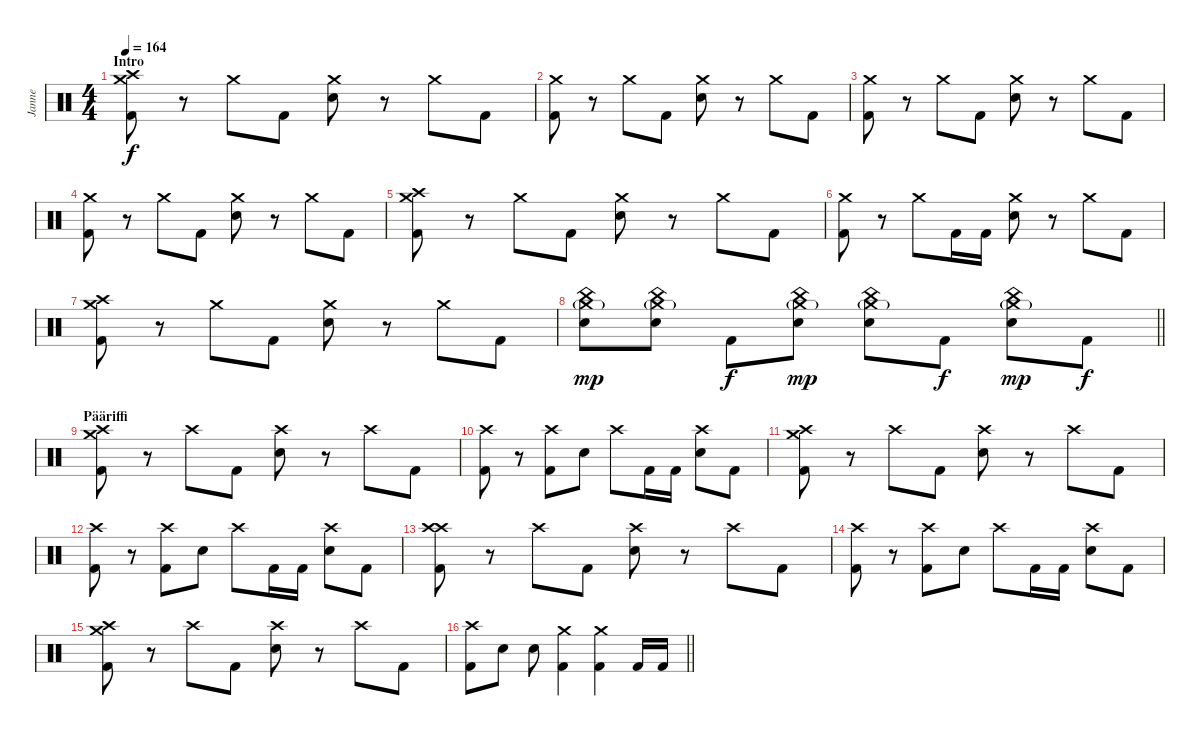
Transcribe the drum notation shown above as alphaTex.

\track ("Janne" "Janne") {instrument percussion}
\staff {score}
\articulation defaults
\ts (4 4)
\section ("" "Intro")
\tempo 164
\clef neutral
\ks c
("Crash medium (hit)" "Crash high (hit)" "Kick (hit) 2").8{dy f} r.8 "Crash medium (hit)".8 "Kick (hit) 2".8 ("Crash medium (hit)" "Electric Snare (hit)").8 r.8 "Crash medium (hit)".8 "Kick (hit) 2".8 |
("Crash medium (hit)" "Kick (hit) 2").8 r.8 "Crash medium (hit)".8 "Kick (hit) 2".8 ("Crash medium (hit)" "Electric Snare (hit)").8 r.8 "Crash medium (hit)".8 "Kick (hit) 2".8 |
("Crash medium (hit)" "Kick (hit) 2").8 r.8 "Crash medium (hit)".8 "Kick (hit) 2".8 ("Crash medium (hit)" "Electric Snare (hit)").8 r.8 "Crash medium (hit)".8 "Kick (hit) 2".8 |
("Crash medium (hit)" "Kick (hit) 2").8 r.8 "Crash medium (hit)".8 "Kick (hit) 2".8 ("Crash medium (hit)" "Electric Snare (hit)").8 r.8 "Crash medium (hit)".8 "Kick (hit) 2".8 |
("Crash medium (hit)" "Crash high (hit)" "Kick (hit) 2").8 r.8 "Crash medium (hit)".8 "Kick (hit) 2".8 ("Crash medium (hit)" "Electric Snare (hit)").8 r.8 "Crash medium (hit)".8 "Kick (hit) 2".8 |
("Crash medium (hit)" "Kick (hit) 2").8 r.8 "Crash medium (hit)".8 "Kick (hit) 2".16 "Kick (hit) 2".16 ("Crash medium (hit)" "Electric Snare (hit)").8 r.8 "Crash medium (hit)".8 "Kick (hit) 2".8 |
("Crash medium (hit)" "Crash high (hit)" "Kick (hit) 2").8 r.8 "Crash medium (hit)".8 "Kick (hit) 2".8 ("Crash medium (hit)" "Electric Snare (hit)").8 r.8 "Crash medium (hit)".8 "Kick (hit) 2".8 |
\barLineRight lightlight
("China (hit)" "Electric Snare (hit)" "Crash medium (hit)"{g}).8{dy mp} ("China (hit)" "Electric Snare (hit)" "Crash medium (hit)"{g}).8 "Kick (hit) 2".8{dy f} ("China (hit)" "Electric Snare (hit)" "Crash medium (hit)"{g}).8{dy mp} ("China (hit)" "Electric Snare (hit)" "Crash medium (hit)"{g}).8 "Kick (hit) 2".8{dy f} ("China (hit)" "Electric Snare (hit)" "Crash medium (hit)"{g}).8{dy mp} "Kick (hit) 2".8{dy f} |
\section ("" "Pääriffi")
("Crash medium (hit)" "Crash high (hit)" "Kick (hit) 2").8 r.8 "Crash high (hit)".8 "Kick (hit) 2".8 ("Crash high (hit)" "Electric Snare (hit)").8 r.8 "Crash high (hit)".8 "Kick (hit) 2".8 |
("Crash high (hit)" "Kick (hit) 2").8 r.8 ("Crash high (hit)" "Kick (hit) 2").8 "Electric Snare (hit)".8 "Crash high (hit)".8 "Kick (hit) 2".16 "Kick (hit) 2".16 ("Crash high (hit)" "Electric Snare (hit)").8 "Kick (hit) 2".8 |
("Crash medium (hit)" "Crash high (hit)" "Kick (hit) 2").8 r.8 "Crash high (hit)".8 "Kick (hit) 2".8 ("Crash high (hit)" "Electric Snare (hit)").8 r.8 "Crash high (hit)".8 "Kick (hit) 2".8 |
("Crash high (hit)" "Kick (hit) 2").8 r.8 ("Crash high (hit)" "Kick (hit) 2").8 "Electric Snare (hit)".8 "Crash high (hit)".8 "Kick (hit) 2".16 "Kick (hit) 2".16 ("Crash high (hit)" "Electric Snare (hit)").8 "Kick (hit) 2".8 |
("Crash high (hit)" "Crash high (hit)" "Kick (hit) 2").8 r.8 "Crash high (hit)".8 "Kick (hit) 2".8 ("Crash high (hit)" "Electric Snare (hit)").8 r.8 "Crash high (hit)".8 "Kick (hit) 2".8 |
("Crash high (hit)" "Kick (hit) 2").8 r.8 ("Crash high (hit)" "Kick (hit) 2").8 "Electric Snare (hit)".8 "Crash high (hit)".8 "Kick (hit) 2".16 "Kick (hit) 2".16 ("Crash high (hit)" "Electric Snare (hit)").8 "Kick (hit) 2".8 |
("Crash medium (hit)" "Crash high (hit)" "Kick (hit) 2").8 r.8 "Crash high (hit)".8 "Kick (hit) 2".8 ("Crash high (hit)" "Electric Snare (hit)").8 r.8 "Crash high (hit)".8 "Kick (hit) 2".8 |
\barLineRight lightlight
("Crash high (hit)" "Kick (hit) 2").8 "Electric Snare (hit)".8 "Electric Snare (hit)".8 ("Crash medium (hit)" "Kick (hit) 2").4 ("Crash medium (hit)" "Kick (hit) 2").4 "Kick (hit) 2".16 "Kick (hit) 2".16
